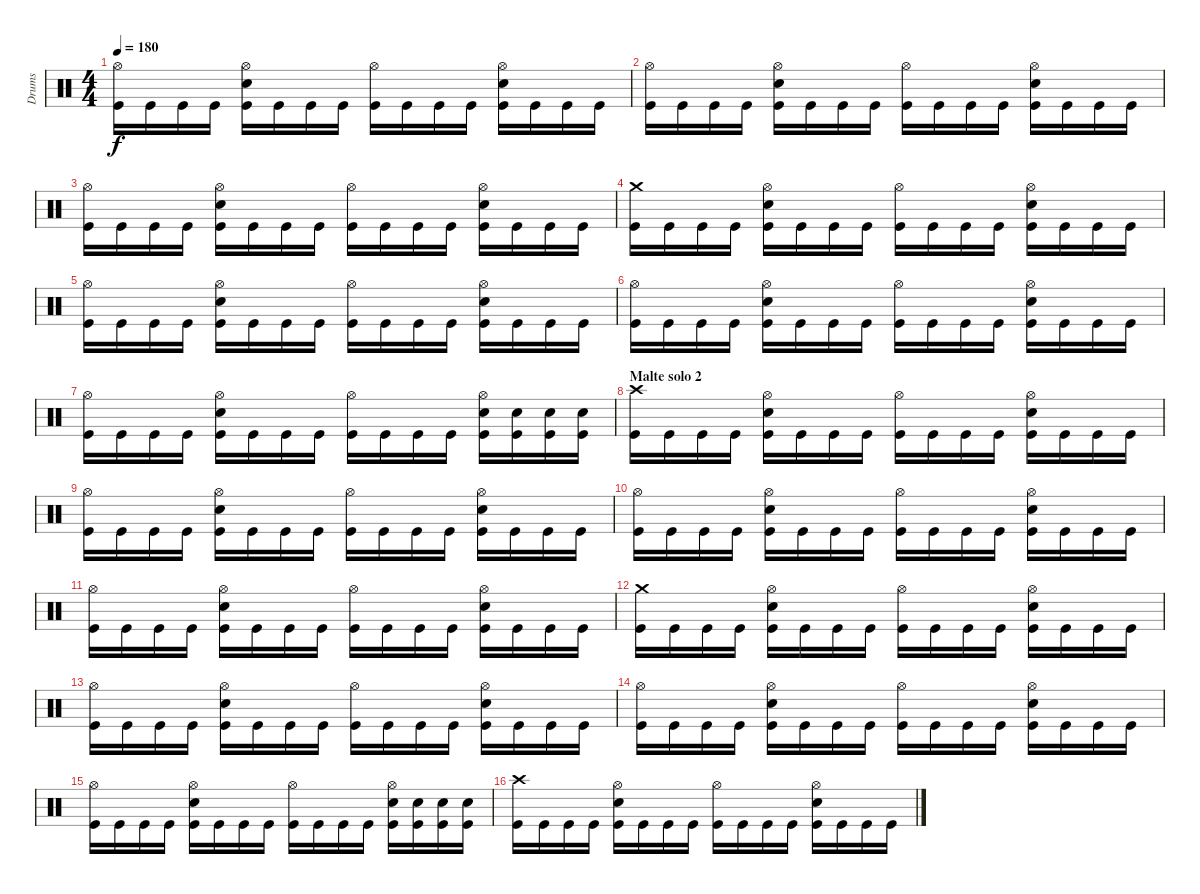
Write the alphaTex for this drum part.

\track ("Drums" "Drums") {instrument percussion}
\staff {score}
\articulation defaults
\ts (4 4)
\tempo 180
\clef neutral
\ks c
("Hi-Hat (open)" "Kick (hit)").16{dy f} "Kick (hit)".16 "Kick (hit)".16 "Kick (hit)".16 ("Hi-Hat (open)" "Snare (hit) 2" "Kick (hit)").16 "Kick (hit)".16 "Kick (hit)".16 "Kick (hit)".16 ("Hi-Hat (open)" "Kick (hit)").16 "Kick (hit)".16 "Kick (hit)".16 "Kick (hit)".16 ("Hi-Hat (open)" "Snare (hit) 2" "Kick (hit)").16 "Kick (hit)".16 "Kick (hit)".16 "Kick (hit)".16 |
("Hi-Hat (open)" "Kick (hit)").16 "Kick (hit)".16 "Kick (hit)".16 "Kick (hit)".16 ("Hi-Hat (open)" "Snare (hit) 2" "Kick (hit)").16 "Kick (hit)".16 "Kick (hit)".16 "Kick (hit)".16 ("Hi-Hat (open)" "Kick (hit)").16 "Kick (hit)".16 "Kick (hit)".16 "Kick (hit)".16 ("Hi-Hat (open)" "Snare (hit) 2" "Kick (hit)").16 "Kick (hit)".16 "Kick (hit)".16 "Kick (hit)".16 |
("Hi-Hat (open)" "Kick (hit)").16 "Kick (hit)".16 "Kick (hit)".16 "Kick (hit)".16 ("Hi-Hat (open)" "Snare (hit) 2" "Kick (hit)").16 "Kick (hit)".16 "Kick (hit)".16 "Kick (hit)".16 ("Hi-Hat (open)" "Kick (hit)").16 "Kick (hit)".16 "Kick (hit)".16 "Kick (hit)".16 ("Hi-Hat (open)" "Snare (hit) 2" "Kick (hit)").16 "Kick (hit)".16 "Kick (hit)".16 "Kick (hit)".16 |
("Crash medium (hit)" "Kick (hit)").16 "Kick (hit)".16 "Kick (hit)".16 "Kick (hit)".16 ("Hi-Hat (open)" "Snare (hit) 2" "Kick (hit)").16 "Kick (hit)".16 "Kick (hit)".16 "Kick (hit)".16 ("Hi-Hat (open)" "Kick (hit)").16 "Kick (hit)".16 "Kick (hit)".16 "Kick (hit)".16 ("Hi-Hat (open)" "Snare (hit) 2" "Kick (hit)").16 "Kick (hit)".16 "Kick (hit)".16 "Kick (hit)".16 |
("Hi-Hat (open)" "Kick (hit)").16 "Kick (hit)".16 "Kick (hit)".16 "Kick (hit)".16 ("Hi-Hat (open)" "Snare (hit) 2" "Kick (hit)").16 "Kick (hit)".16 "Kick (hit)".16 "Kick (hit)".16 ("Hi-Hat (open)" "Kick (hit)").16 "Kick (hit)".16 "Kick (hit)".16 "Kick (hit)".16 ("Hi-Hat (open)" "Snare (hit) 2" "Kick (hit)").16 "Kick (hit)".16 "Kick (hit)".16 "Kick (hit)".16 |
("Hi-Hat (open)" "Kick (hit)").16 "Kick (hit)".16 "Kick (hit)".16 "Kick (hit)".16 ("Hi-Hat (open)" "Snare (hit) 2" "Kick (hit)").16 "Kick (hit)".16 "Kick (hit)".16 "Kick (hit)".16 ("Hi-Hat (open)" "Kick (hit)").16 "Kick (hit)".16 "Kick (hit)".16 "Kick (hit)".16 ("Hi-Hat (open)" "Snare (hit) 2" "Kick (hit)").16 "Kick (hit)".16 "Kick (hit)".16 "Kick (hit)".16 |
("Hi-Hat (open)" "Kick (hit)").16 "Kick (hit)".16 "Kick (hit)".16 "Kick (hit)".16 ("Hi-Hat (open)" "Snare (hit) 2" "Kick (hit)").16 "Kick (hit)".16 "Kick (hit)".16 "Kick (hit)".16 ("Hi-Hat (open)" "Kick (hit)").16 "Kick (hit)".16 "Kick (hit)".16 "Kick (hit)".16 ("Hi-Hat (open)" "Snare (hit) 2" "Kick (hit)").16 ("Snare (hit) 2" "Kick (hit)").16 ("Snare (hit) 2" "Kick (hit)").16 ("Snare (hit) 2" "Kick (hit)").16 |
\section ("" "Malte solo 2")
("Crash high (hit)" "Kick (hit)").16 "Kick (hit)".16 "Kick (hit)".16 "Kick (hit)".16 ("Hi-Hat (open)" "Snare (hit) 2" "Kick (hit)").16 "Kick (hit)".16 "Kick (hit)".16 "Kick (hit)".16 ("Hi-Hat (open)" "Kick (hit)").16 "Kick (hit)".16 "Kick (hit)".16 "Kick (hit)".16 ("Hi-Hat (open)" "Snare (hit) 2" "Kick (hit)").16 "Kick (hit)".16 "Kick (hit)".16 "Kick (hit)".16 |
("Hi-Hat (open)" "Kick (hit)").16 "Kick (hit)".16 "Kick (hit)".16 "Kick (hit)".16 ("Hi-Hat (open)" "Snare (hit) 2" "Kick (hit)").16 "Kick (hit)".16 "Kick (hit)".16 "Kick (hit)".16 ("Hi-Hat (open)" "Kick (hit)").16 "Kick (hit)".16 "Kick (hit)".16 "Kick (hit)".16 ("Hi-Hat (open)" "Snare (hit) 2" "Kick (hit)").16 "Kick (hit)".16 "Kick (hit)".16 "Kick (hit)".16 |
("Hi-Hat (open)" "Kick (hit)").16 "Kick (hit)".16 "Kick (hit)".16 "Kick (hit)".16 ("Hi-Hat (open)" "Snare (hit) 2" "Kick (hit)").16 "Kick (hit)".16 "Kick (hit)".16 "Kick (hit)".16 ("Hi-Hat (open)" "Kick (hit)").16 "Kick (hit)".16 "Kick (hit)".16 "Kick (hit)".16 ("Hi-Hat (open)" "Snare (hit) 2" "Kick (hit)").16 "Kick (hit)".16 "Kick (hit)".16 "Kick (hit)".16 |
("Hi-Hat (open)" "Kick (hit)").16 "Kick (hit)".16 "Kick (hit)".16 "Kick (hit)".16 ("Hi-Hat (open)" "Snare (hit) 2" "Kick (hit)").16 "Kick (hit)".16 "Kick (hit)".16 "Kick (hit)".16 ("Hi-Hat (open)" "Kick (hit)").16 "Kick (hit)".16 "Kick (hit)".16 "Kick (hit)".16 ("Hi-Hat (open)" "Snare (hit) 2" "Kick (hit)").16 "Kick (hit)".16 "Kick (hit)".16 "Kick (hit)".16 |
("Crash medium (hit)" "Kick (hit)").16 "Kick (hit)".16 "Kick (hit)".16 "Kick (hit)".16 ("Hi-Hat (open)" "Snare (hit) 2" "Kick (hit)").16 "Kick (hit)".16 "Kick (hit)".16 "Kick (hit)".16 ("Hi-Hat (open)" "Kick (hit)").16 "Kick (hit)".16 "Kick (hit)".16 "Kick (hit)".16 ("Hi-Hat (open)" "Snare (hit) 2" "Kick (hit)").16 "Kick (hit)".16 "Kick (hit)".16 "Kick (hit)".16 |
("Hi-Hat (open)" "Kick (hit)").16 "Kick (hit)".16 "Kick (hit)".16 "Kick (hit)".16 ("Hi-Hat (open)" "Snare (hit) 2" "Kick (hit)").16 "Kick (hit)".16 "Kick (hit)".16 "Kick (hit)".16 ("Hi-Hat (open)" "Kick (hit)").16 "Kick (hit)".16 "Kick (hit)".16 "Kick (hit)".16 ("Hi-Hat (open)" "Snare (hit) 2" "Kick (hit)").16 "Kick (hit)".16 "Kick (hit)".16 "Kick (hit)".16 |
("Hi-Hat (open)" "Kick (hit)").16 "Kick (hit)".16 "Kick (hit)".16 "Kick (hit)".16 ("Hi-Hat (open)" "Snare (hit) 2" "Kick (hit)").16 "Kick (hit)".16 "Kick (hit)".16 "Kick (hit)".16 ("Hi-Hat (open)" "Kick (hit)").16 "Kick (hit)".16 "Kick (hit)".16 "Kick (hit)".16 ("Hi-Hat (open)" "Snare (hit) 2" "Kick (hit)").16 "Kick (hit)".16 "Kick (hit)".16 "Kick (hit)".16 |
("Hi-Hat (open)" "Kick (hit)").16 "Kick (hit)".16 "Kick (hit)".16 "Kick (hit)".16 ("Hi-Hat (open)" "Snare (hit) 2" "Kick (hit)").16 "Kick (hit)".16 "Kick (hit)".16 "Kick (hit)".16 ("Hi-Hat (open)" "Kick (hit)").16 "Kick (hit)".16 "Kick (hit)".16 "Kick (hit)".16 ("Hi-Hat (open)" "Snare (hit) 2" "Kick (hit)").16 ("Snare (hit) 2" "Kick (hit)").16 ("Snare (hit) 2" "Kick (hit)").16 ("Snare (hit) 2" "Kick (hit)").16 |
("Crash high (hit)" "Kick (hit)").16 "Kick (hit)".16 "Kick (hit)".16 "Kick (hit)".16 ("Hi-Hat (open)" "Snare (hit) 2" "Kick (hit)").16 "Kick (hit)".16 "Kick (hit)".16 "Kick (hit)".16 ("Hi-Hat (open)" "Kick (hit)").16 "Kick (hit)".16 "Kick (hit)".16 "Kick (hit)".16 ("Hi-Hat (open)" "Snare (hit) 2" "Kick (hit)").16 "Kick (hit)".16 "Kick (hit)".16 "Kick (hit)".16
